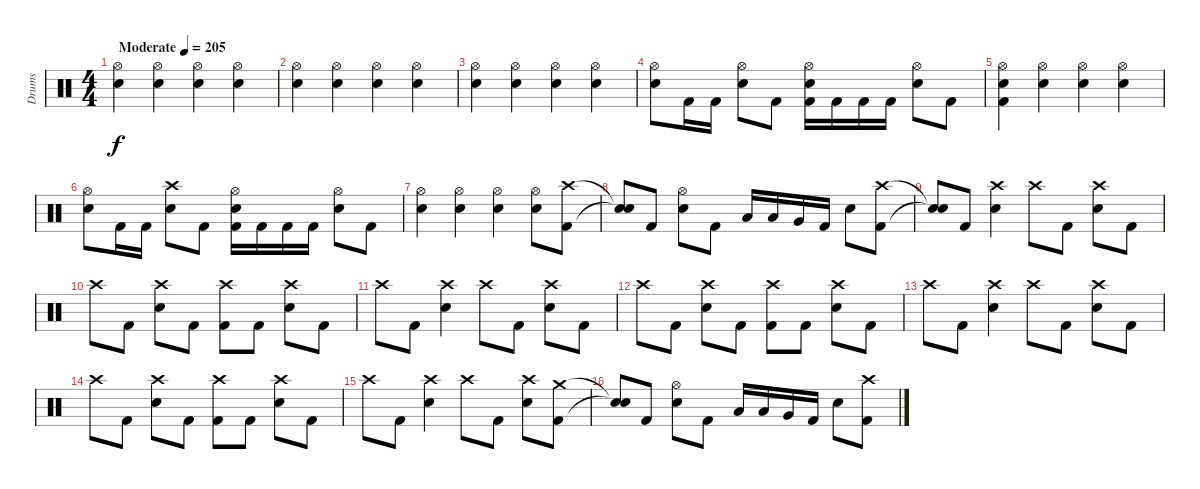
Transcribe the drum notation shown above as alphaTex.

\track ("Drums" "Drums") {instrument percussion}
\staff {score}
\articulation defaults
\ts (4 4)
\tempo (205 "Moderate")
\clef neutral
\ks c
("Hi-Hat (open)" "Electric Snare (hit)").4{dy f volume 12} ("Hi-Hat (open)" "Electric Snare (hit)").4 ("Hi-Hat (open)" "Electric Snare (hit)").4 ("Hi-Hat (open)" "Electric Snare (hit)").4 |
("Hi-Hat (open)" "Electric Snare (hit)").4 ("Hi-Hat (open)" "Electric Snare (hit)").4 ("Hi-Hat (open)" "Electric Snare (hit)").4 ("Hi-Hat (open)" "Electric Snare (hit)").4 |
("Hi-Hat (open)" "Electric Snare (hit)").4 ("Hi-Hat (open)" "Electric Snare (hit)").4 ("Hi-Hat (open)" "Electric Snare (hit)").4 ("Hi-Hat (open)" "Electric Snare (hit)").4 |
("Hi-Hat (open)" "Electric Snare (hit)").8 "Kick (hit) 2".16 "Kick (hit) 2".16 ("Hi-Hat (open)" "Electric Snare (hit)").8 "Kick (hit) 2".8 ("Hi-Hat (open)" "Electric Snare (hit)" "Kick (hit) 2").16 "Kick (hit) 2".16 "Kick (hit) 2".16 "Kick (hit) 2".16 ("Hi-Hat (open)" "Electric Snare (hit)").8 "Kick (hit) 2".8 |
("Hi-Hat (open)" "Electric Snare (hit)" "Kick (hit) 2").4 ("Hi-Hat (open)" "Electric Snare (hit)").4 ("Hi-Hat (open)" "Electric Snare (hit)").4 ("Hi-Hat (open)" "Electric Snare (hit)").4 |
("Hi-Hat (open)" "Electric Snare (hit)").8 "Kick (hit) 2".16 "Kick (hit) 2".16 ("Crash high (hit)" "Electric Snare (hit)").8 "Kick (hit) 2".8 ("Hi-Hat (open)" "Electric Snare (hit)" "Kick (hit) 2").16 "Kick (hit) 2".16 "Kick (hit) 2".16 "Kick (hit) 2".16 ("Hi-Hat (open)" "Electric Snare (hit)").8 "Kick (hit) 2".8 |
("Hi-Hat (open)" "Electric Snare (hit)").4 ("Hi-Hat (open)" "Electric Snare (hit)").4 ("Hi-Hat (open)" "Electric Snare (hit)").4 ("Hi-Hat (open)" "Electric Snare (hit)").8 ("Crash high (hit)" "Kick (hit) 2").8{volume 16} |
("Snare (hit)"{t} "Snare (hit)"{t}).8 "Kick (hit) 2".8 ("Hi-Hat (open)" "Electric Snare (hit)").8 "Kick (hit) 2".8 "Low Tom (hit)".16 "Low Tom (hit)".16 "Very Low Tom (hit)".16 "Kick (hit) 2".16 "Electric Snare (hit)".8 ("Crash high (hit)" "Kick (hit) 2").8 |
("Snare (hit)"{t} "Snare (hit)"{t}).8 "Kick (hit) 2".8 ("Crash high (hit)" "Electric Snare (hit)").4 "Crash high (hit)".8 "Kick (hit) 2".8 ("Crash high (hit)" "Electric Snare (hit)").8 "Kick (hit) 2".8 |
"Crash high (hit)".8 "Kick (hit) 2".8 ("Crash high (hit)" "Electric Snare (hit)").8 "Kick (hit) 2".8 ("Crash high (hit)" "Kick (hit) 2").8 "Kick (hit) 2".8 ("Crash high (hit)" "Electric Snare (hit)").8 "Kick (hit) 2".8 |
"Crash high (hit)".8 "Kick (hit) 2".8 ("Crash high (hit)" "Electric Snare (hit)").4 "Crash high (hit)".8 "Kick (hit) 2".8 ("Crash high (hit)" "Electric Snare (hit)").8 "Kick (hit) 2".8 |
"Crash high (hit)".8 "Kick (hit) 2".8 ("Crash high (hit)" "Electric Snare (hit)").8 "Kick (hit) 2".8 ("Crash high (hit)" "Kick (hit) 2").8 "Kick (hit) 2".8 ("Crash high (hit)" "Electric Snare (hit)").8 "Kick (hit) 2".8 |
"Crash high (hit)".8 "Kick (hit) 2".8 ("Crash high (hit)" "Electric Snare (hit)").4 "Crash high (hit)".8 "Kick (hit) 2".8 ("Crash high (hit)" "Electric Snare (hit)").8 "Kick (hit) 2".8 |
"Crash high (hit)".8 "Kick (hit) 2".8 ("Crash high (hit)" "Electric Snare (hit)").8 "Kick (hit) 2".8 ("Crash high (hit)" "Kick (hit) 2").8 "Kick (hit) 2".8 ("Crash high (hit)" "Electric Snare (hit)").8 "Kick (hit) 2".8 |
"Crash high (hit)".8 "Kick (hit) 2".8 ("Crash high (hit)" "Electric Snare (hit)").4 "Crash high (hit)".8 "Kick (hit) 2".8 ("Crash high (hit)" "Electric Snare (hit)").8 ("Crash medium (hit)" "Kick (hit) 2").8 |
("Snare (hit)"{t} "Snare (hit)"{t}).8 "Kick (hit) 2".8 ("Hi-Hat (open)" "Electric Snare (hit)").8 "Kick (hit) 2".8 "Low Tom (hit)".16 "Low Tom (hit)".16 "Very Low Tom (hit)".16 "Kick (hit) 2".16 "Electric Snare (hit)".8 ("Crash high (hit)" "Kick (hit) 2").8
